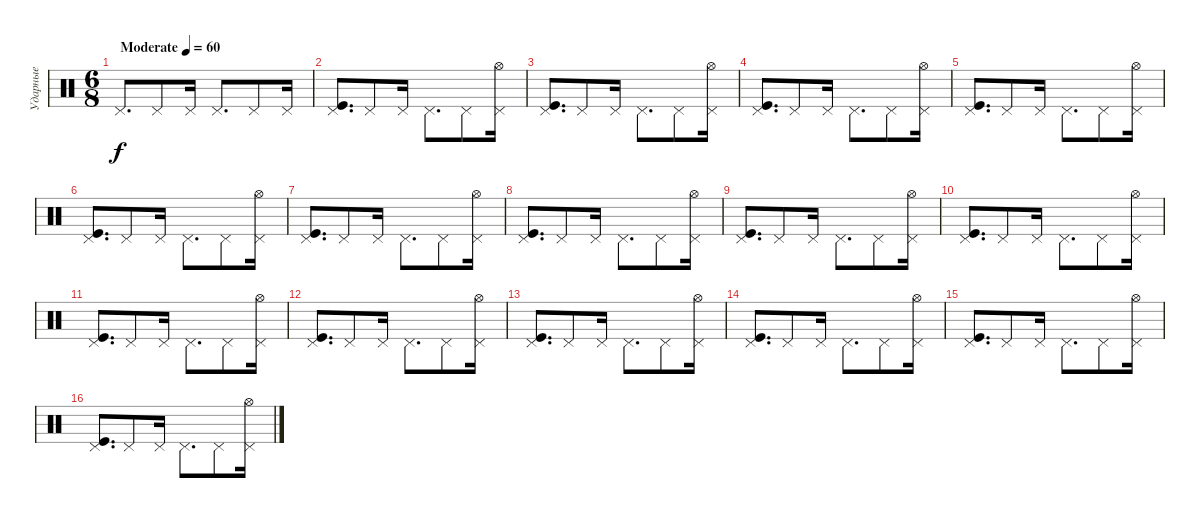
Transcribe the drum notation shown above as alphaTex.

\track ("Ударные" "Ударные") {instrument percussion}
\staff {score}
\articulation defaults
\ts (6 8)
\tempo (60 "Moderate")
\clef neutral
\ks c "Pedal Hi-Hat (hit)".8{d dy f} "Pedal Hi-Hat (hit)".8 "Pedal Hi-Hat (hit)".16 "Pedal Hi-Hat (hit)".8{d} "Pedal Hi-Hat (hit)".8 "Pedal Hi-Hat (hit)".16
|
("Pedal Hi-Hat (hit)" "Kick (hit)").8{d} "Pedal Hi-Hat (hit)".8 "Pedal Hi-Hat (hit)".16 "Pedal Hi-Hat (hit)".8{d} "Pedal Hi-Hat (hit)".8 ("Pedal Hi-Hat (hit)" "Hi-Hat (open)").16 |
("Pedal Hi-Hat (hit)" "Kick (hit)").8{d} "Pedal Hi-Hat (hit)".8 "Pedal Hi-Hat (hit)".16 "Pedal Hi-Hat (hit)".8{d} "Pedal Hi-Hat (hit)".8 ("Pedal Hi-Hat (hit)" "Hi-Hat (open)").16 |
("Pedal Hi-Hat (hit)" "Kick (hit)").8{d} "Pedal Hi-Hat (hit)".8 "Pedal Hi-Hat (hit)".16 "Pedal Hi-Hat (hit)".8{d} "Pedal Hi-Hat (hit)".8 ("Pedal Hi-Hat (hit)" "Hi-Hat (open)").16 |
("Pedal Hi-Hat (hit)" "Kick (hit)").8{d} "Pedal Hi-Hat (hit)".8 "Pedal Hi-Hat (hit)".16 "Pedal Hi-Hat (hit)".8{d} "Pedal Hi-Hat (hit)".8 ("Pedal Hi-Hat (hit)" "Hi-Hat (open)").16 |
("Pedal Hi-Hat (hit)" "Kick (hit)").8{d} "Pedal Hi-Hat (hit)".8 "Pedal Hi-Hat (hit)".16 "Pedal Hi-Hat (hit)".8{d} "Pedal Hi-Hat (hit)".8 ("Pedal Hi-Hat (hit)" "Hi-Hat (open)").16 |
("Pedal Hi-Hat (hit)" "Kick (hit)").8{d} "Pedal Hi-Hat (hit)".8 "Pedal Hi-Hat (hit)".16 "Pedal Hi-Hat (hit)".8{d} "Pedal Hi-Hat (hit)".8 ("Pedal Hi-Hat (hit)" "Hi-Hat (open)").16 |
("Pedal Hi-Hat (hit)" "Kick (hit)").8{d} "Pedal Hi-Hat (hit)".8 "Pedal Hi-Hat (hit)".16 "Pedal Hi-Hat (hit)".8{d} "Pedal Hi-Hat (hit)".8 ("Pedal Hi-Hat (hit)" "Hi-Hat (open)").16 |
("Pedal Hi-Hat (hit)" "Kick (hit)").8{d} "Pedal Hi-Hat (hit)".8 "Pedal Hi-Hat (hit)".16 "Pedal Hi-Hat (hit)".8{d} "Pedal Hi-Hat (hit)".8 ("Pedal Hi-Hat (hit)" "Hi-Hat (open)").16 |
("Pedal Hi-Hat (hit)" "Kick (hit)").8{d} "Pedal Hi-Hat (hit)".8 "Pedal Hi-Hat (hit)".16 "Pedal Hi-Hat (hit)".8{d} "Pedal Hi-Hat (hit)".8 ("Pedal Hi-Hat (hit)" "Hi-Hat (open)").16 |
("Pedal Hi-Hat (hit)" "Kick (hit)").8{d} "Pedal Hi-Hat (hit)".8 "Pedal Hi-Hat (hit)".16 "Pedal Hi-Hat (hit)".8{d} "Pedal Hi-Hat (hit)".8 ("Pedal Hi-Hat (hit)" "Hi-Hat (open)").16 |
("Pedal Hi-Hat (hit)" "Kick (hit)").8{d} "Pedal Hi-Hat (hit)".8 "Pedal Hi-Hat (hit)".16 "Pedal Hi-Hat (hit)".8{d} "Pedal Hi-Hat (hit)".8 ("Pedal Hi-Hat (hit)" "Hi-Hat (open)").16 |
("Pedal Hi-Hat (hit)" "Kick (hit)").8{d} "Pedal Hi-Hat (hit)".8 "Pedal Hi-Hat (hit)".16 "Pedal Hi-Hat (hit)".8{d} "Pedal Hi-Hat (hit)".8 ("Pedal Hi-Hat (hit)" "Hi-Hat (open)").16 |
("Pedal Hi-Hat (hit)" "Kick (hit)").8{d} "Pedal Hi-Hat (hit)".8 "Pedal Hi-Hat (hit)".16 "Pedal Hi-Hat (hit)".8{d} "Pedal Hi-Hat (hit)".8 ("Pedal Hi-Hat (hit)" "Hi-Hat (open)").16 |
("Pedal Hi-Hat (hit)" "Kick (hit)").8{d} "Pedal Hi-Hat (hit)".8 "Pedal Hi-Hat (hit)".16 "Pedal Hi-Hat (hit)".8{d} "Pedal Hi-Hat (hit)".8 ("Pedal Hi-Hat (hit)" "Hi-Hat (open)").16 |
("Pedal Hi-Hat (hit)" "Kick (hit)").8{d} "Pedal Hi-Hat (hit)".8 "Pedal Hi-Hat (hit)".16 "Pedal Hi-Hat (hit)".8{d} "Pedal Hi-Hat (hit)".8 ("Pedal Hi-Hat (hit)" "Hi-Hat (open)").16
